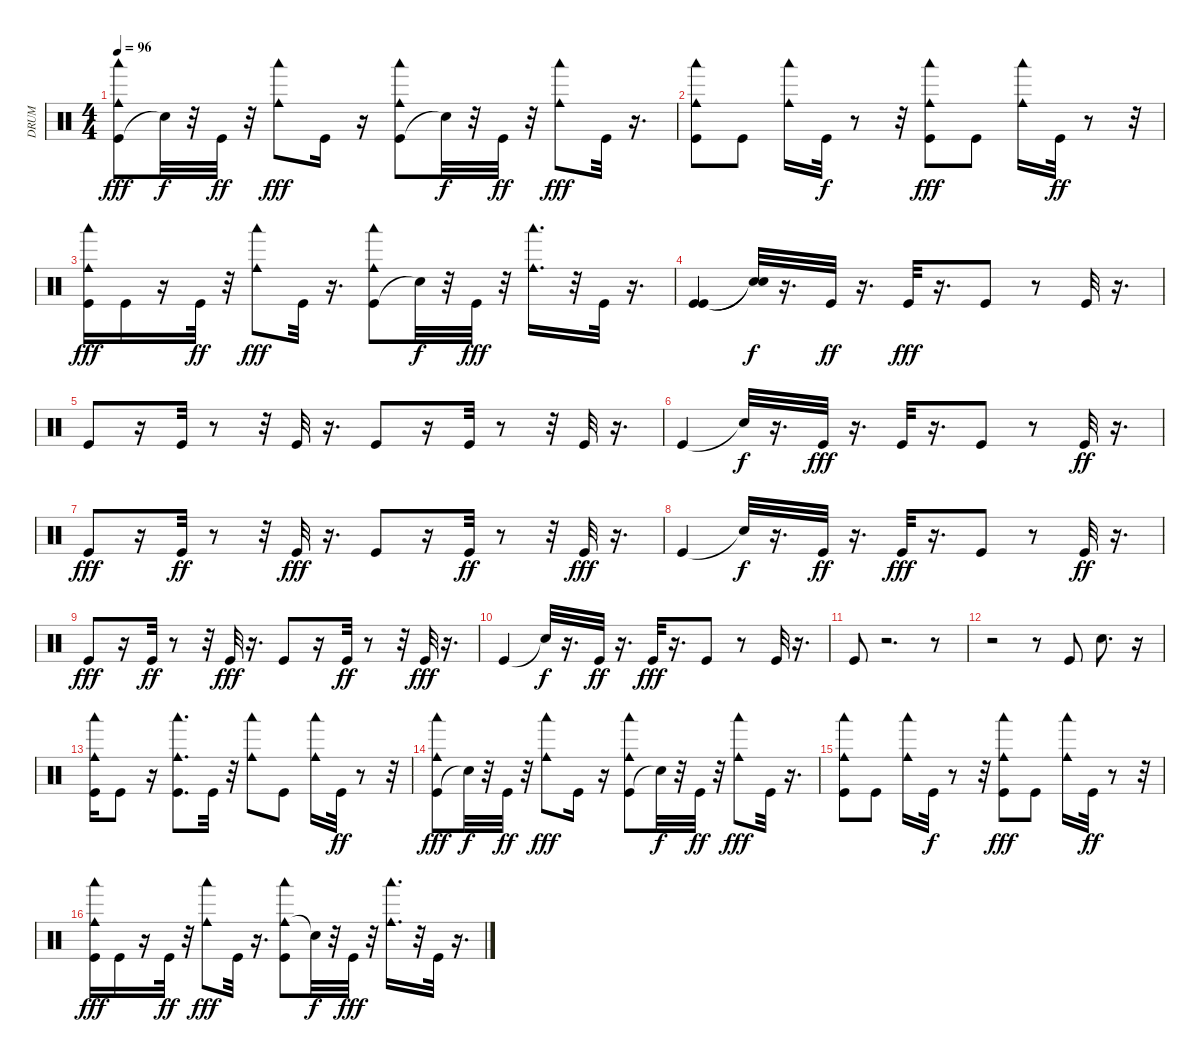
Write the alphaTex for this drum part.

\track ("DRUM" "DRUM") {instrument percussion}
\staff {score}
\articulation defaults
\ts (4 4)
\tempo 96
\clef neutral
\ks c
("Kick (hit)" "Cowbell medium (hit)" "Woodblock low (hit)").8{dy fff} "Snare (hit)"{t}.32{dy f} r.32 "Kick (hit)".32{dy ff} r.32 ("Cowbell medium (hit)" "Woodblock low (hit)").8{dy fff} "Kick (hit)".16 r.16 ("Kick (hit)" "Cowbell medium (hit)" "Woodblock low (hit)").8 "Snare (hit)"{t}.32{dy f} r.32 "Kick (hit)".32{dy ff} r.32 ("Cowbell medium (hit)" "Woodblock low (hit)").8{dy fff} "Kick (hit)".32 r.16{d} |
("Kick (hit)" "Cowbell medium (hit)" "Woodblock low (hit)").8 "Kick (hit)".8 ("Cowbell medium (hit)" "Woodblock low (hit)").16 "Kick (hit)".32{dy f} r.8 r.32 ("Kick (hit)" "Cowbell medium (hit)" "Woodblock low (hit)").8{dy fff} "Kick (hit)".8 ("Cowbell medium (hit)" "Woodblock low (hit)").16 "Kick (hit)".32{dy ff} r.8 r.32 |
("Kick (hit)" "Cowbell medium (hit)" "Woodblock low (hit)").16{dy fff} "Kick (hit)".16 r.16 "Kick (hit)".32{dy ff} r.32 ("Cowbell medium (hit)" "Woodblock low (hit)").8{dy fff} "Kick (hit)".32 r.16{d} ("Kick (hit)" "Woodblock low (hit)" "Cowbell medium (hit)").8 "Snare (hit)"{t}.32{dy f} r.32 "Kick (hit)".32{dy fff} r.32 ("Woodblock low (hit)" "Cowbell medium (hit)").16{d} r.32 "Kick (hit)".32 r.16{d} |
("Kick (hit)" "Kick (hit)").4 ("Snare (hit)"{t} "Snare (hit)"{t}).32{dy f} r.16{d} "Kick (hit)".32{dy ff} r.16{d} "Kick (hit)".32{dy fff} r.16{d} "Kick (hit)".8 r.8 "Kick (hit)".32 r.16{d} |
"Kick (hit)".8 r.16 "Kick (hit)".32 r.8 r.32 "Kick (hit)".32 r.16{d} "Kick (hit)".8 r.16 "Kick (hit)".32 r.8 r.32 "Kick (hit)".32 r.16{d} |
"Kick (hit)".4 "Snare (hit)"{t}.32{dy f} r.16{d} "Kick (hit)".32{dy fff} r.16{d} "Kick (hit)".32 r.16{d} "Kick (hit)".8 r.8 "Kick (hit)".32{dy ff} r.16{d} |
"Kick (hit)".8{dy fff} r.16 "Kick (hit)".32{dy ff} r.8 r.32 "Kick (hit)".32{dy fff} r.16{d} "Kick (hit)".8 r.16 "Kick (hit)".32{dy ff} r.8 r.32 "Kick (hit)".32{dy fff} r.16{d} |
"Kick (hit)".4 "Snare (hit)"{t}.32{dy f} r.16{d} "Kick (hit)".32{dy ff} r.16{d} "Kick (hit)".32{dy fff} r.16{d} "Kick (hit)".8 r.8 "Kick (hit)".32{dy ff} r.16{d} |
"Kick (hit)".8{dy fff} r.16 "Kick (hit)".32{dy ff} r.8 r.32 "Kick (hit)".32{dy fff} r.16{d} "Kick (hit)".8 r.16 "Kick (hit)".32{dy ff} r.8 r.32 "Kick (hit)".32{dy fff} r.16{d} |
"Kick (hit)".4 "Snare (hit)"{t}.32{dy f} r.16{d} "Kick (hit)".32{dy ff} r.16{d} "Kick (hit)".32{dy fff} r.16{d} "Kick (hit)".8 r.8 "Kick (hit)".32 r.16{d} |
"Kick (hit)".8 r.2{d} r.8 |
r.2 r.8 "Kick (hit)".8 "Electric Snare (hit)".8{d} r.16 |
("Kick (hit)" "Cowbell medium (hit)" "Woodblock low (hit)").16 "Kick (hit)".8 r.16 ("Kick (hit)" "Cowbell medium (hit)" "Woodblock low (hit)").8{d} "Kick (hit)".32 r.32 ("Woodblock low (hit)" "Cowbell medium (hit)").8 "Kick (hit)".8 ("Woodblock low (hit)" "Cowbell medium (hit)").16 "Kick (hit)".32{dy ff} r.8 r.32 |
("Kick (hit)" "Cowbell medium (hit)" "Woodblock low (hit)").8{dy fff} "Snare (hit)"{t}.32{dy f} r.32 "Kick (hit)".32{dy ff} r.32 ("Woodblock low (hit)" "Cowbell medium (hit)").8{dy fff} "Kick (hit)".16 r.16 ("Kick (hit)" "Cowbell medium (hit)" "Woodblock low (hit)").8 "Snare (hit)"{t}.32{dy f} r.32 "Kick (hit)".32{dy ff} r.32 ("Cowbell medium (hit)" "Woodblock low (hit)").8{dy fff} "Kick (hit)".32 r.16{d} |
("Woodblock low (hit)" "Kick (hit)" "Cowbell medium (hit)").8 "Kick (hit)".8 ("Woodblock low (hit)" "Cowbell medium (hit)").16 "Kick (hit)".32{dy f} r.8 r.32 ("Woodblock low (hit)" "Cowbell medium (hit)" "Kick (hit)").8{dy fff} "Kick (hit)".8 ("Cowbell medium (hit)" "Woodblock low (hit)").16 "Kick (hit)".32{dy ff} r.8 r.32 |
("Woodblock low (hit)" "Cowbell medium (hit)" "Kick (hit)").16{dy fff} "Kick (hit)".16 r.16 "Kick (hit)".32{dy ff} r.32 ("Woodblock low (hit)" "Cowbell medium (hit)").8{dy fff} "Kick (hit)".32 r.16{d} ("Cowbell medium (hit)" "Woodblock low (hit)" "Kick (hit)").8 "Snare (hit)"{t}.32{dy f} r.32 "Kick (hit)".32{dy fff} r.32 ("Woodblock low (hit)" "Cowbell medium (hit)").16{d} r.32 "Kick (hit)".32 r.16{d}
